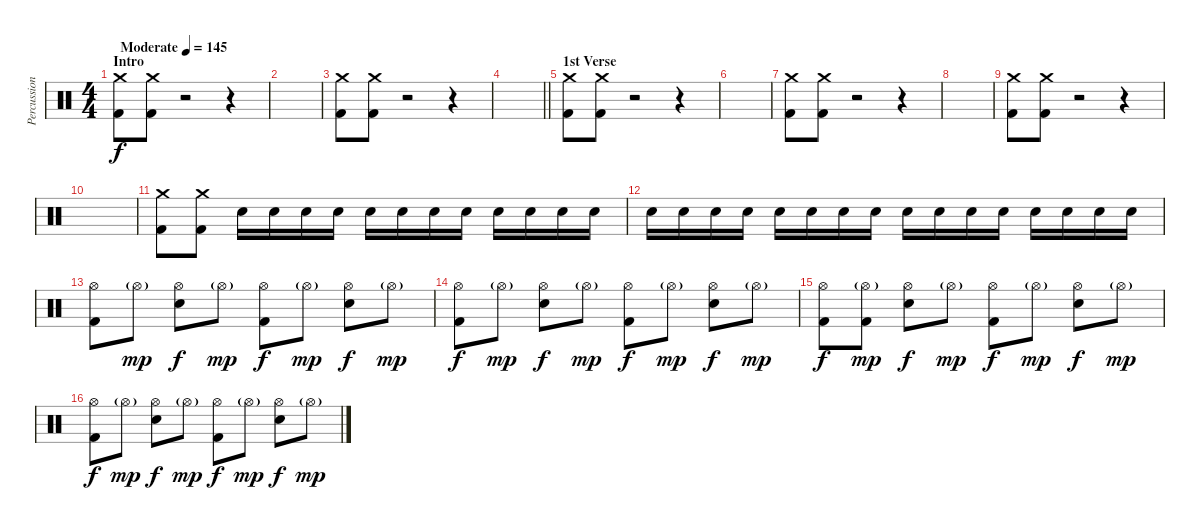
\track ("Percussion" "Percussion") {instrument percussion}
\staff {score}
\articulation defaults
\ts (4 4)
\section ("" "Intro")
\tempo (145 "Moderate")
\clef neutral
\ks c
("Crash medium (hit)" "Kick (hit) 2").8{dy f} ("Crash medium (hit)" "Kick (hit) 2").8 r.2 r.4 |
|
("Crash medium (hit)" "Kick (hit) 2").8 ("Crash medium (hit)" "Kick (hit) 2").8 r.2 r.4 |
\barLineRight lightlight
|
\section ("" "1st Verse")
("Crash medium (hit)" "Kick (hit) 2").8 ("Crash medium (hit)" "Kick (hit) 2").8 r.2 r.4 |
|
("Crash medium (hit)" "Kick (hit) 2").8 ("Crash medium (hit)" "Kick (hit) 2").8 r.2 r.4 |
|
("Crash medium (hit)" "Kick (hit) 2").8 ("Crash medium (hit)" "Kick (hit) 2").8 r.2 r.4 |
|
("Crash medium (hit)" "Kick (hit) 2").8 ("Crash medium (hit)" "Kick (hit) 2").8 "Snare (hit) 2".16 "Snare (hit) 2".16 "Snare (hit) 2".16 "Snare (hit) 2".16 "Snare (hit) 2".16 "Snare (hit) 2".16 "Snare (hit) 2".16 "Snare (hit) 2".16 "Snare (hit) 2".16 "Snare (hit) 2".16 "Snare (hit) 2".16 "Snare (hit) 2".16 |
"Snare (hit) 2".16 "Snare (hit) 2".16 "Snare (hit) 2".16 "Snare (hit) 2".16 "Snare (hit) 2".16 "Snare (hit) 2".16 "Snare (hit) 2".16 "Snare (hit) 2".16 "Snare (hit) 2".16 "Snare (hit) 2".16 "Snare (hit) 2".16 "Snare (hit) 2".16 "Snare (hit) 2".16 "Snare (hit) 2".16 "Snare (hit) 2".16 "Snare (hit) 2".16 |
("Hi-Hat (open)" "Kick (hit) 2").8 "Hi-Hat (open)"{g}.8{dy mp} ("Snare (hit) 2" "Hi-Hat (open)").8{dy f} "Hi-Hat (open)"{g}.8{dy mp} ("Hi-Hat (open)" "Kick (hit) 2").8{dy f} "Hi-Hat (open)"{g}.8{dy mp} ("Snare (hit) 2" "Hi-Hat (open)").8{dy f} "Hi-Hat (open)"{g}.8{dy mp} |
("Hi-Hat (open)" "Kick (hit) 2").8{dy f} "Hi-Hat (open)"{g}.8{dy mp} ("Snare (hit) 2" "Hi-Hat (open)").8{dy f} "Hi-Hat (open)"{g}.8{dy mp} ("Hi-Hat (open)" "Kick (hit) 2").8{dy f} "Hi-Hat (open)"{g}.8{dy mp} ("Snare (hit) 2" "Hi-Hat (open)").8{dy f} "Hi-Hat (open)"{g}.8{dy mp} |
("Hi-Hat (open)" "Kick (hit) 2").8{dy f} ("Hi-Hat (open)"{g} "Kick (hit) 2").8{dy mp} ("Snare (hit) 2" "Hi-Hat (open)").8{dy f} "Hi-Hat (open)"{g}.8{dy mp} ("Hi-Hat (open)" "Kick (hit) 2").8{dy f} "Hi-Hat (open)"{g}.8{dy mp} ("Snare (hit) 2" "Hi-Hat (open)").8{dy f} "Hi-Hat (open)"{g}.8{dy mp} |
("Hi-Hat (open)" "Kick (hit) 2").8{dy f} "Hi-Hat (open)"{g}.8{dy mp} ("Snare (hit) 2" "Hi-Hat (open)").8{dy f} "Hi-Hat (open)"{g}.8{dy mp} ("Hi-Hat (open)" "Kick (hit) 2").8{dy f} "Hi-Hat (open)"{g}.8{dy mp} ("Snare (hit) 2" "Hi-Hat (open)").8{dy f} "Hi-Hat (open)"{g}.8{dy mp}
